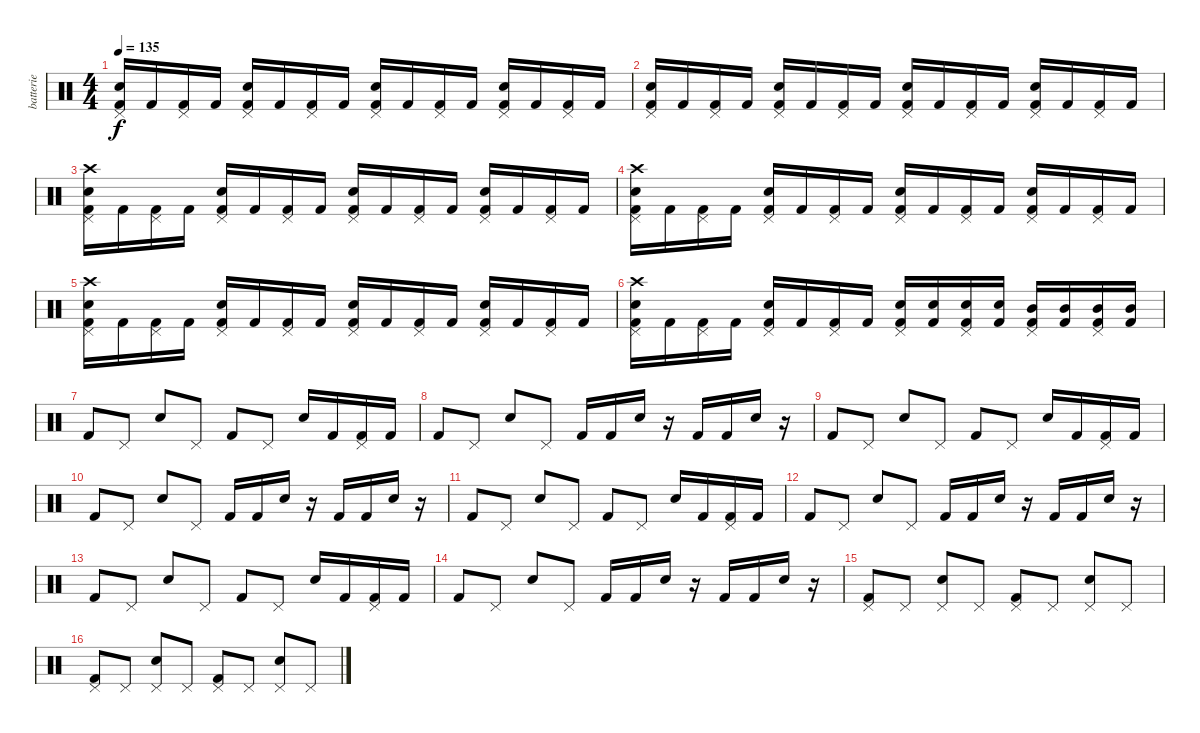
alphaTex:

\track ("batterie" "batterie") {instrument percussion}
\staff {score}
\articulation defaults
\ts (4 4)
\tempo 135
\clef neutral
\ks c
("Snare (hit) 2" "Kick (hit) 2" "Pedal Hi-Hat (hit)").16{dy f} "Kick (hit) 2".16 ("Kick (hit) 2" "Pedal Hi-Hat (hit)").16 "Kick (hit) 2".16 ("Snare (hit) 2" "Kick (hit) 2" "Pedal Hi-Hat (hit)").16 "Kick (hit) 2".16 ("Kick (hit) 2" "Pedal Hi-Hat (hit)").16 "Kick (hit) 2".16 ("Snare (hit) 2" "Kick (hit) 2" "Pedal Hi-Hat (hit)").16 "Kick (hit) 2".16 ("Kick (hit) 2" "Pedal Hi-Hat (hit)").16 "Kick (hit) 2".16 ("Snare (hit) 2" "Kick (hit) 2" "Pedal Hi-Hat (hit)").16 "Kick (hit) 2".16 ("Kick (hit) 2" "Pedal Hi-Hat (hit)").16 "Kick (hit) 2".16 |
("Snare (hit) 2" "Kick (hit) 2" "Pedal Hi-Hat (hit)").16 "Kick (hit) 2".16 ("Kick (hit) 2" "Pedal Hi-Hat (hit)").16 "Kick (hit) 2".16 ("Snare (hit) 2" "Kick (hit) 2" "Pedal Hi-Hat (hit)").16 "Kick (hit) 2".16 ("Kick (hit) 2" "Pedal Hi-Hat (hit)").16 "Kick (hit) 2".16 ("Snare (hit) 2" "Kick (hit) 2" "Pedal Hi-Hat (hit)").16 "Kick (hit) 2".16 ("Kick (hit) 2" "Pedal Hi-Hat (hit)").16 "Kick (hit) 2".16 ("Snare (hit) 2" "Kick (hit) 2" "Pedal Hi-Hat (hit)").16 "Kick (hit) 2".16 ("Kick (hit) 2" "Pedal Hi-Hat (hit)").16 "Kick (hit) 2".16 |
("Crash high (hit)" "Snare (hit) 2" "Kick (hit) 2" "Pedal Hi-Hat (hit)").16 "Kick (hit) 2".16 ("Kick (hit) 2" "Pedal Hi-Hat (hit)").16 "Kick (hit) 2".16 ("Snare (hit) 2" "Kick (hit) 2" "Pedal Hi-Hat (hit)").16 "Kick (hit) 2".16 ("Kick (hit) 2" "Pedal Hi-Hat (hit)").16 "Kick (hit) 2".16 ("Snare (hit) 2" "Kick (hit) 2" "Pedal Hi-Hat (hit)").16 "Kick (hit) 2".16 ("Kick (hit) 2" "Pedal Hi-Hat (hit)").16 "Kick (hit) 2".16 ("Snare (hit) 2" "Kick (hit) 2" "Pedal Hi-Hat (hit)").16 "Kick (hit) 2".16 ("Kick (hit) 2" "Pedal Hi-Hat (hit)").16 "Kick (hit) 2".16 |
("Crash high (hit)" "Snare (hit) 2" "Kick (hit) 2" "Pedal Hi-Hat (hit)").16 "Kick (hit) 2".16 ("Kick (hit) 2" "Pedal Hi-Hat (hit)").16 "Kick (hit) 2".16 ("Snare (hit) 2" "Kick (hit) 2" "Pedal Hi-Hat (hit)").16 "Kick (hit) 2".16 ("Kick (hit) 2" "Pedal Hi-Hat (hit)").16 "Kick (hit) 2".16 ("Snare (hit) 2" "Kick (hit) 2" "Pedal Hi-Hat (hit)").16 "Kick (hit) 2".16 ("Kick (hit) 2" "Pedal Hi-Hat (hit)").16 "Kick (hit) 2".16 ("Snare (hit) 2" "Kick (hit) 2" "Pedal Hi-Hat (hit)").16 "Kick (hit) 2".16 ("Kick (hit) 2" "Pedal Hi-Hat (hit)").16 "Kick (hit) 2".16 |
("Crash high (hit)" "Snare (hit) 2" "Kick (hit) 2" "Pedal Hi-Hat (hit)").16 "Kick (hit) 2".16 ("Kick (hit) 2" "Pedal Hi-Hat (hit)").16 "Kick (hit) 2".16 ("Snare (hit) 2" "Kick (hit) 2" "Pedal Hi-Hat (hit)").16 "Kick (hit) 2".16 ("Kick (hit) 2" "Pedal Hi-Hat (hit)").16 "Kick (hit) 2".16 ("Snare (hit) 2" "Kick (hit) 2" "Pedal Hi-Hat (hit)").16 "Kick (hit) 2".16 ("Kick (hit) 2" "Pedal Hi-Hat (hit)").16 "Kick (hit) 2".16 ("Snare (hit) 2" "Kick (hit) 2" "Pedal Hi-Hat (hit)").16 "Kick (hit) 2".16 ("Kick (hit) 2" "Pedal Hi-Hat (hit)").16 "Kick (hit) 2".16 |
("Crash high (hit)" "Snare (hit) 2" "Kick (hit) 2" "Pedal Hi-Hat (hit)").16 "Kick (hit) 2".16 ("Kick (hit) 2" "Pedal Hi-Hat (hit)").16 "Kick (hit) 2".16 ("Snare (hit) 2" "Kick (hit) 2" "Pedal Hi-Hat (hit)").16 "Kick (hit) 2".16 ("Kick (hit) 2" "Pedal Hi-Hat (hit)").16 "Kick (hit) 2".16 ("Snare (hit) 2" "Kick (hit) 2" "Pedal Hi-Hat (hit)").16 ("Snare (hit) 2" "Kick (hit) 2").16 ("Snare (hit) 2" "Kick (hit) 2" "Pedal Hi-Hat (hit)").16 ("Snare (hit) 2" "Kick (hit) 2").16 ("Mid Tom (hit)" "Kick (hit) 2" "Pedal Hi-Hat (hit)").16 ("Mid Tom (hit)" "Kick (hit) 2").16 ("Mid Tom (hit)" "Kick (hit) 2" "Pedal Hi-Hat (hit)").16 ("Mid Tom (hit)" "Kick (hit) 2").16 |
"Kick (hit) 2".8 "Pedal Hi-Hat (hit)".8 "Snare (hit) 2".8 "Pedal Hi-Hat (hit)".8 "Kick (hit) 2".8 "Pedal Hi-Hat (hit)".8 "Snare (hit) 2".16 "Kick (hit) 2".16 ("Kick (hit) 2" "Pedal Hi-Hat (hit)").16 "Kick (hit) 2".16 |
"Kick (hit) 2".8 "Pedal Hi-Hat (hit)".8 "Snare (hit) 2".8 "Pedal Hi-Hat (hit)".8 "Kick (hit) 2".16 "Kick (hit) 2".16 "Snare (hit) 2".16 r.16 "Kick (hit) 2".16 "Kick (hit) 2".16 "Snare (hit) 2".16 r.16 |
"Kick (hit) 2".8 "Pedal Hi-Hat (hit)".8 "Snare (hit) 2".8 "Pedal Hi-Hat (hit)".8 "Kick (hit) 2".8 "Pedal Hi-Hat (hit)".8 "Snare (hit) 2".16 "Kick (hit) 2".16 ("Kick (hit) 2" "Pedal Hi-Hat (hit)").16 "Kick (hit) 2".16 |
"Kick (hit) 2".8 "Pedal Hi-Hat (hit)".8 "Snare (hit) 2".8 "Pedal Hi-Hat (hit)".8 "Kick (hit) 2".16 "Kick (hit) 2".16 "Snare (hit) 2".16 r.16 "Kick (hit) 2".16 "Kick (hit) 2".16 "Snare (hit) 2".16 r.16 |
"Kick (hit) 2".8 "Pedal Hi-Hat (hit)".8 "Snare (hit) 2".8 "Pedal Hi-Hat (hit)".8 "Kick (hit) 2".8 "Pedal Hi-Hat (hit)".8 "Snare (hit) 2".16 "Kick (hit) 2".16 ("Kick (hit) 2" "Pedal Hi-Hat (hit)").16 "Kick (hit) 2".16 |
"Kick (hit) 2".8 "Pedal Hi-Hat (hit)".8 "Snare (hit) 2".8 "Pedal Hi-Hat (hit)".8 "Kick (hit) 2".16 "Kick (hit) 2".16 "Snare (hit) 2".16 r.16 "Kick (hit) 2".16 "Kick (hit) 2".16 "Snare (hit) 2".16 r.16 |
"Kick (hit) 2".8 "Pedal Hi-Hat (hit)".8 "Snare (hit) 2".8 "Pedal Hi-Hat (hit)".8 "Kick (hit) 2".8 "Pedal Hi-Hat (hit)".8 "Snare (hit) 2".16 "Kick (hit) 2".16 ("Kick (hit) 2" "Pedal Hi-Hat (hit)").16 "Kick (hit) 2".16 |
"Kick (hit) 2".8 "Pedal Hi-Hat (hit)".8 "Snare (hit) 2".8 "Pedal Hi-Hat (hit)".8 "Kick (hit) 2".16 "Kick (hit) 2".16 "Snare (hit) 2".16 r.16 "Kick (hit) 2".16 "Kick (hit) 2".16 "Snare (hit) 2".16 r.16 |
("Kick (hit) 2" "Pedal Hi-Hat (hit)").8 "Pedal Hi-Hat (hit)".8 ("Snare (hit) 2" "Pedal Hi-Hat (hit)").8 "Pedal Hi-Hat (hit)".8 ("Kick (hit) 2" "Pedal Hi-Hat (hit)").8 "Pedal Hi-Hat (hit)".8 ("Snare (hit) 2" "Pedal Hi-Hat (hit)").8 "Pedal Hi-Hat (hit)".8 |
("Kick (hit) 2" "Pedal Hi-Hat (hit)").8 "Pedal Hi-Hat (hit)".8 ("Snare (hit) 2" "Pedal Hi-Hat (hit)").8 "Pedal Hi-Hat (hit)".8 ("Kick (hit) 2" "Pedal Hi-Hat (hit)").8 "Pedal Hi-Hat (hit)".8 ("Snare (hit) 2" "Pedal Hi-Hat (hit)").8 "Pedal Hi-Hat (hit)".8
